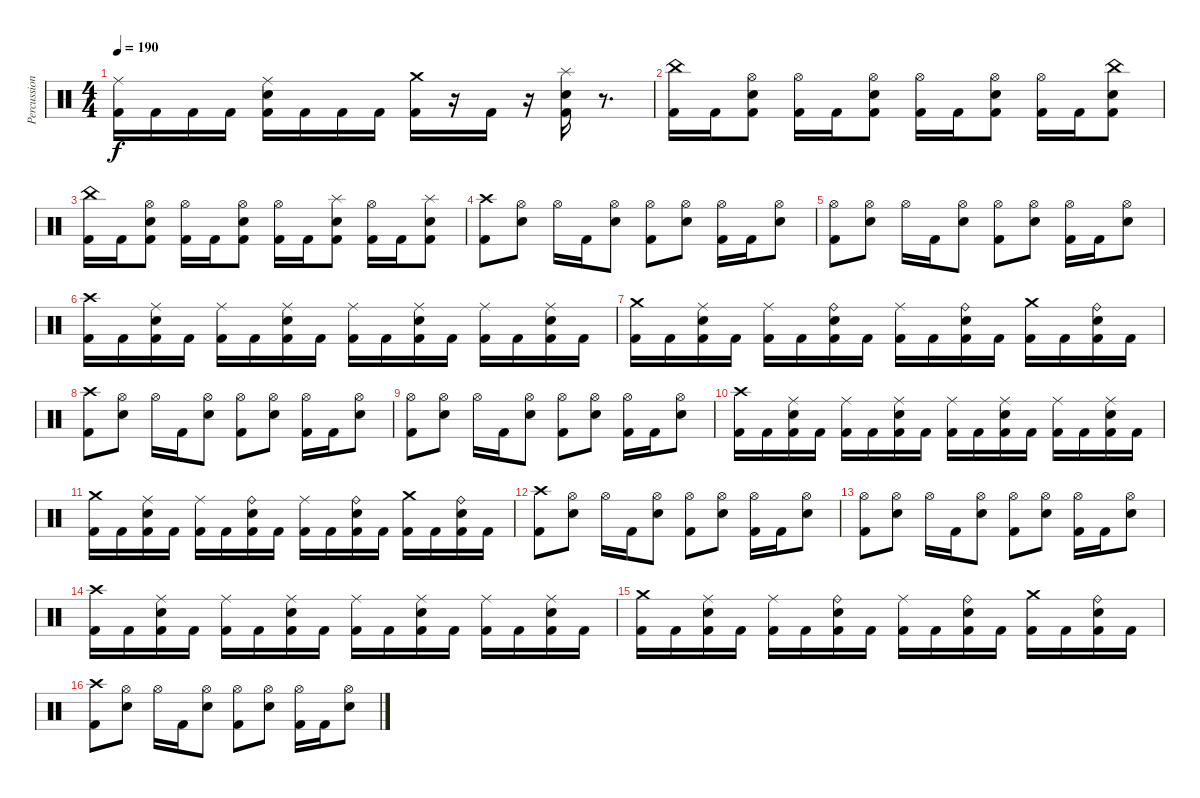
\track ("Percussion" "Percussion") {instrument percussion}
\staff {score}
\articulation defaults
\ts (4 4)
\tempo 190
\clef neutral
\ks c
("Ride (middle)" "Kick (hit) 2").16{dy f} "Kick (hit) 2".16 "Kick (hit) 2".16 "Kick (hit) 2".16 ("Ride (middle)" "Snare (hit) 2" "Kick (hit) 2").16 "Kick (hit) 2".16 "Kick (hit) 2".16 "Kick (hit) 2".16 ("Crash medium (hit)" "Kick (hit) 2").16 r.16 "Kick (hit) 2".16 r.16 ("Splash (hit)" "Snare (hit) 2" "Kick (hit) 2").16 r.8{d} |
("China (hit)" "Kick (hit) 2").16 "Kick (hit) 2".16 ("Hi-Hat (open)" "Snare (hit) 2" "Kick (hit) 2").8 ("Hi-Hat (open)" "Kick (hit) 2").16 "Kick (hit) 2".16 ("Hi-Hat (open)" "Snare (hit) 2" "Kick (hit) 2").8 ("Hi-Hat (open)" "Kick (hit) 2").16 "Kick (hit) 2".16 ("Hi-Hat (open)" "Snare (hit) 2" "Kick (hit) 2").8 ("Hi-Hat (open)" "Kick (hit) 2").16 "Kick (hit) 2".16 ("China (hit)" "Snare (hit) 2" "Kick (hit) 2").8 |
("China (hit)" "Kick (hit) 2").16 "Kick (hit) 2".16 ("Hi-Hat (open)" "Snare (hit) 2" "Kick (hit) 2").8 ("Hi-Hat (open)" "Kick (hit) 2").16 "Kick (hit) 2".16 ("Hi-Hat (open)" "Snare (hit) 2" "Kick (hit) 2").8 ("Hi-Hat (open)" "Kick (hit) 2").16 "Kick (hit) 2".16 ("Splash (hit)" "Snare (hit) 2" "Kick (hit) 2").8 ("Hi-Hat (open)" "Kick (hit) 2").16 "Kick (hit) 2".16 ("Splash (hit)" "Snare (hit) 2" "Kick (hit) 2").8 |
("Crash high (hit)" "Kick (hit) 2").8 ("Hi-Hat (open)" "Snare (hit) 2").8 "Hi-Hat (open)".16 "Kick (hit) 2".16 ("Hi-Hat (open)" "Snare (hit) 2").8 ("Hi-Hat (open)" "Kick (hit) 2").8 ("Hi-Hat (open)" "Snare (hit) 2").8 ("Hi-Hat (open)" "Kick (hit) 2").16 "Kick (hit) 2".16 ("Hi-Hat (open)" "Snare (hit) 2").8 |
("Hi-Hat (open)" "Kick (hit) 2").8 ("Hi-Hat (open)" "Snare (hit) 2").8 "Hi-Hat (open)".16 "Kick (hit) 2".16 ("Hi-Hat (open)" "Snare (hit) 2").8 ("Hi-Hat (open)" "Kick (hit) 2").8 ("Hi-Hat (open)" "Snare (hit) 2").8 ("Hi-Hat (open)" "Kick (hit) 2").16 "Kick (hit) 2".16 ("Hi-Hat (open)" "Snare (hit) 2").8 |
("Crash high (hit)" "Kick (hit) 2").16 "Kick (hit) 2".16 ("Ride (middle)" "Snare (hit) 2" "Kick (hit) 2").16 "Kick (hit) 2".16 ("Ride (middle)" "Kick (hit) 2").16 "Kick (hit) 2".16 ("Ride (middle)" "Snare (hit) 2" "Kick (hit) 2").16 "Kick (hit) 2".16 ("Ride (middle)" "Kick (hit) 2").16 "Kick (hit) 2".16 ("Ride (middle)" "Snare (hit) 2" "Kick (hit) 2").16 "Kick (hit) 2".16 ("Ride (middle)" "Kick (hit) 2").16 "Kick (hit) 2".16 ("Ride (middle)" "Snare (hit) 2" "Kick (hit) 2").16 "Kick (hit) 2".16 |
("Crash medium (hit)" "Kick (hit) 2").16 "Kick (hit) 2".16 ("Ride (middle)" "Snare (hit) 2" "Kick (hit) 2").16 "Kick (hit) 2".16 ("Ride (middle)" "Kick (hit) 2").16 "Kick (hit) 2".16 ("Ride (bell)" "Snare (hit) 2" "Kick (hit) 2").16 "Kick (hit) 2".16 ("Ride (middle)" "Kick (hit) 2").16 "Kick (hit) 2".16 ("Ride (bell)" "Snare (hit) 2" "Kick (hit) 2").16 "Kick (hit) 2".16 ("Crash medium (hit)" "Kick (hit) 2").16 "Kick (hit) 2".16 ("Ride (bell)" "Snare (hit) 2" "Kick (hit) 2").16 "Kick (hit) 2".16 |
("Crash high (hit)" "Kick (hit) 2").8 ("Hi-Hat (open)" "Snare (hit) 2").8 "Hi-Hat (open)".16 "Kick (hit) 2".16 ("Hi-Hat (open)" "Snare (hit) 2").8 ("Hi-Hat (open)" "Kick (hit) 2").8 ("Hi-Hat (open)" "Snare (hit) 2").8 ("Hi-Hat (open)" "Kick (hit) 2").16 "Kick (hit) 2".16 ("Hi-Hat (open)" "Snare (hit) 2").8 |
("Hi-Hat (open)" "Kick (hit) 2").8 ("Hi-Hat (open)" "Snare (hit) 2").8 "Hi-Hat (open)".16 "Kick (hit) 2".16 ("Hi-Hat (open)" "Snare (hit) 2").8 ("Hi-Hat (open)" "Kick (hit) 2").8 ("Hi-Hat (open)" "Snare (hit) 2").8 ("Hi-Hat (open)" "Kick (hit) 2").16 "Kick (hit) 2".16 ("Hi-Hat (open)" "Snare (hit) 2").8 |
("Crash high (hit)" "Kick (hit) 2").16 "Kick (hit) 2".16 ("Ride (middle)" "Snare (hit) 2" "Kick (hit) 2").16 "Kick (hit) 2".16 ("Ride (middle)" "Kick (hit) 2").16 "Kick (hit) 2".16 ("Ride (middle)" "Snare (hit) 2" "Kick (hit) 2").16 "Kick (hit) 2".16 ("Ride (middle)" "Kick (hit) 2").16 "Kick (hit) 2".16 ("Ride (middle)" "Snare (hit) 2" "Kick (hit) 2").16 "Kick (hit) 2".16 ("Ride (middle)" "Kick (hit) 2").16 "Kick (hit) 2".16 ("Ride (middle)" "Snare (hit) 2" "Kick (hit) 2").16 "Kick (hit) 2".16 |
("Crash medium (hit)" "Kick (hit) 2").16 "Kick (hit) 2".16 ("Ride (middle)" "Snare (hit) 2" "Kick (hit) 2").16 "Kick (hit) 2".16 ("Ride (middle)" "Kick (hit) 2").16 "Kick (hit) 2".16 ("Ride (bell)" "Snare (hit) 2" "Kick (hit) 2").16 "Kick (hit) 2".16 ("Ride (middle)" "Kick (hit) 2").16 "Kick (hit) 2".16 ("Ride (bell)" "Snare (hit) 2" "Kick (hit) 2").16 "Kick (hit) 2".16 ("Crash medium (hit)" "Kick (hit) 2").16 "Kick (hit) 2".16 ("Ride (bell)" "Snare (hit) 2" "Kick (hit) 2").16 "Kick (hit) 2".16 |
("Crash high (hit)" "Kick (hit) 2").8 ("Hi-Hat (open)" "Snare (hit) 2").8 "Hi-Hat (open)".16 "Kick (hit) 2".16 ("Hi-Hat (open)" "Snare (hit) 2").8 ("Hi-Hat (open)" "Kick (hit) 2").8 ("Hi-Hat (open)" "Snare (hit) 2").8 ("Hi-Hat (open)" "Kick (hit) 2").16 "Kick (hit) 2".16 ("Hi-Hat (open)" "Snare (hit) 2").8 |
("Hi-Hat (open)" "Kick (hit) 2").8 ("Hi-Hat (open)" "Snare (hit) 2").8 "Hi-Hat (open)".16 "Kick (hit) 2".16 ("Hi-Hat (open)" "Snare (hit) 2").8 ("Hi-Hat (open)" "Kick (hit) 2").8 ("Hi-Hat (open)" "Snare (hit) 2").8 ("Hi-Hat (open)" "Kick (hit) 2").16 "Kick (hit) 2".16 ("Hi-Hat (open)" "Snare (hit) 2").8 |
("Crash high (hit)" "Kick (hit) 2").16 "Kick (hit) 2".16 ("Ride (middle)" "Snare (hit) 2" "Kick (hit) 2").16 "Kick (hit) 2".16 ("Ride (middle)" "Kick (hit) 2").16 "Kick (hit) 2".16 ("Ride (middle)" "Snare (hit) 2" "Kick (hit) 2").16 "Kick (hit) 2".16 ("Ride (middle)" "Kick (hit) 2").16 "Kick (hit) 2".16 ("Ride (middle)" "Snare (hit) 2" "Kick (hit) 2").16 "Kick (hit) 2".16 ("Ride (middle)" "Kick (hit) 2").16 "Kick (hit) 2".16 ("Ride (middle)" "Snare (hit) 2" "Kick (hit) 2").16 "Kick (hit) 2".16 |
("Crash medium (hit)" "Kick (hit) 2").16 "Kick (hit) 2".16 ("Ride (middle)" "Snare (hit) 2" "Kick (hit) 2").16 "Kick (hit) 2".16 ("Ride (middle)" "Kick (hit) 2").16 "Kick (hit) 2".16 ("Ride (bell)" "Snare (hit) 2" "Kick (hit) 2").16 "Kick (hit) 2".16 ("Ride (middle)" "Kick (hit) 2").16 "Kick (hit) 2".16 ("Ride (bell)" "Snare (hit) 2" "Kick (hit) 2").16 "Kick (hit) 2".16 ("Crash medium (hit)" "Kick (hit) 2").16 "Kick (hit) 2".16 ("Ride (bell)" "Snare (hit) 2" "Kick (hit) 2").16 "Kick (hit) 2".16 |
("Crash high (hit)" "Kick (hit) 2").8 ("Hi-Hat (open)" "Snare (hit) 2").8 "Hi-Hat (open)".16 "Kick (hit) 2".16 ("Hi-Hat (open)" "Snare (hit) 2").8 ("Hi-Hat (open)" "Kick (hit) 2").8 ("Hi-Hat (open)" "Snare (hit) 2").8 ("Hi-Hat (open)" "Kick (hit) 2").16 "Kick (hit) 2".16 ("Hi-Hat (open)" "Snare (hit) 2").8
